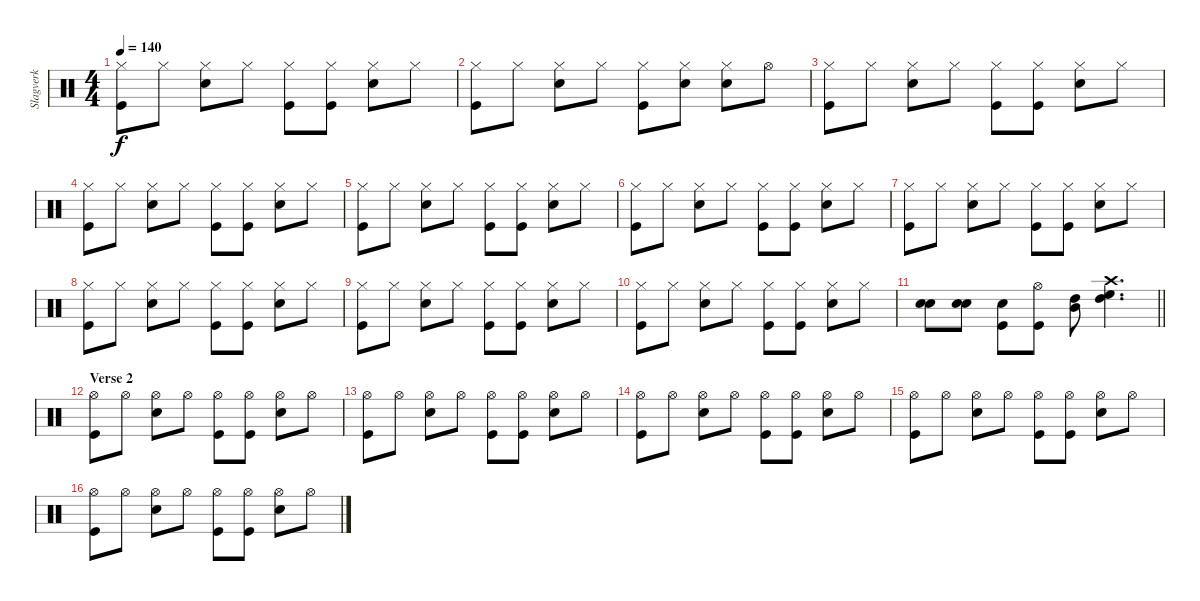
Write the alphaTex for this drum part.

\track ("Slagverk" "Slagverk") {instrument percussion}
\staff {score}
\articulation defaults
\ts (4 4)
\tempo 140
\clef neutral
\ks c
("Hi-Hat (closed)" "Kick (hit)").8{dy f} "Hi-Hat (closed)".8 ("Hi-Hat (closed)" "Snare (hit) 2").8 "Hi-Hat (closed)".8 ("Hi-Hat (closed)" "Kick (hit)").8 ("Hi-Hat (closed)" "Kick (hit)").8 ("Hi-Hat (closed)" "Snare (hit) 2").8 "Hi-Hat (closed)".8 |
("Hi-Hat (closed)" "Kick (hit)").8 "Hi-Hat (closed)".8 ("Hi-Hat (closed)" "Snare (hit) 2").8 "Hi-Hat (closed)".8 ("Hi-Hat (closed)" "Kick (hit)").8 ("Snare (hit) 2" "Hi-Hat (closed)").8 ("Hi-Hat (closed)" "Snare (hit) 2").8 "Hi-Hat (open)".8 |
("Hi-Hat (closed)" "Kick (hit)").8 "Hi-Hat (closed)".8 ("Hi-Hat (closed)" "Snare (hit) 2").8 "Hi-Hat (closed)".8 ("Hi-Hat (closed)" "Kick (hit)").8 ("Hi-Hat (closed)" "Kick (hit)").8 ("Hi-Hat (closed)" "Snare (hit) 2").8 "Hi-Hat (closed)".8 |
("Hi-Hat (closed)" "Kick (hit)").8 "Hi-Hat (closed)".8 ("Hi-Hat (closed)" "Snare (hit) 2").8 "Hi-Hat (closed)".8 ("Hi-Hat (closed)" "Kick (hit)").8 ("Hi-Hat (closed)" "Kick (hit)").8 ("Hi-Hat (closed)" "Snare (hit) 2").8 "Hi-Hat (closed)".8 |
("Hi-Hat (closed)" "Kick (hit)").8 "Hi-Hat (closed)".8 ("Hi-Hat (closed)" "Snare (hit) 2").8 "Hi-Hat (closed)".8 ("Hi-Hat (closed)" "Kick (hit)").8 ("Hi-Hat (closed)" "Kick (hit)").8 ("Hi-Hat (closed)" "Snare (hit) 2").8 "Hi-Hat (closed)".8 |
("Hi-Hat (closed)" "Kick (hit)").8 "Hi-Hat (closed)".8 ("Hi-Hat (closed)" "Snare (hit) 2").8 "Hi-Hat (closed)".8 ("Hi-Hat (closed)" "Kick (hit)").8 ("Hi-Hat (closed)" "Kick (hit)").8 ("Hi-Hat (closed)" "Snare (hit) 2").8 "Hi-Hat (closed)".8 |
("Hi-Hat (closed)" "Kick (hit)").8 "Hi-Hat (closed)".8 ("Hi-Hat (closed)" "Snare (hit) 2").8 "Hi-Hat (closed)".8 ("Hi-Hat (closed)" "Kick (hit)").8 ("Hi-Hat (closed)" "Kick (hit)").8 ("Hi-Hat (closed)" "Snare (hit) 2").8 "Hi-Hat (closed)".8 |
("Hi-Hat (closed)" "Kick (hit)").8 "Hi-Hat (closed)".8 ("Hi-Hat (closed)" "Snare (hit) 2").8 "Hi-Hat (closed)".8 ("Hi-Hat (closed)" "Kick (hit)").8 ("Hi-Hat (closed)" "Kick (hit)").8 ("Hi-Hat (closed)" "Snare (hit) 2").8 "Hi-Hat (closed)".8 |
("Hi-Hat (closed)" "Kick (hit)").8 "Hi-Hat (closed)".8 ("Hi-Hat (closed)" "Snare (hit) 2").8 "Hi-Hat (closed)".8 ("Hi-Hat (closed)" "Kick (hit)").8 ("Hi-Hat (closed)" "Kick (hit)").8 ("Hi-Hat (closed)" "Snare (hit) 2").8 "Hi-Hat (closed)".8 |
("Hi-Hat (closed)" "Kick (hit)").8 "Hi-Hat (closed)".8 ("Hi-Hat (closed)" "Snare (hit) 2").8 "Hi-Hat (closed)".8 ("Hi-Hat (closed)" "Kick (hit)").8 ("Hi-Hat (closed)" "Kick (hit)").8 ("Hi-Hat (closed)" "Snare (hit) 2").8 "Hi-Hat (closed)".8 |
\barLineRight lightlight
("Snare (hit) 2" "Snare (hit) 2").8 ("Snare (hit) 2" "Snare (hit) 2").8 ("Kick (hit)" "Snare (hit) 2").8 ("Hi-Hat (open)" "Kick (hit)").8 ("High Tom (hit)" "Mid Tom (hit)").8 ("High Floor Tom (hit)" "High Tom (hit)" "Crash high (hit)").4{d} |
\section ("" "Verse 2")
("Hi-Hat (open)" "Kick (hit)").8 "Hi-Hat (open)".8 ("Hi-Hat (open)" "Snare (hit) 2").8 "Hi-Hat (open)".8 ("Hi-Hat (open)" "Kick (hit)").8 ("Hi-Hat (open)" "Kick (hit)").8 ("Hi-Hat (open)" "Snare (hit) 2").8 "Hi-Hat (open)".8 |
("Hi-Hat (open)" "Kick (hit)").8 "Hi-Hat (open)".8 ("Hi-Hat (open)" "Snare (hit) 2").8 "Hi-Hat (open)".8 ("Hi-Hat (open)" "Kick (hit)").8 ("Hi-Hat (open)" "Kick (hit)").8 ("Hi-Hat (open)" "Snare (hit) 2").8 "Hi-Hat (open)".8 |
("Hi-Hat (open)" "Kick (hit)").8 "Hi-Hat (open)".8 ("Hi-Hat (open)" "Snare (hit) 2").8 "Hi-Hat (open)".8 ("Hi-Hat (open)" "Kick (hit)").8 ("Hi-Hat (open)" "Kick (hit)").8 ("Hi-Hat (open)" "Snare (hit) 2").8 "Hi-Hat (open)".8 |
("Hi-Hat (open)" "Kick (hit)").8 "Hi-Hat (open)".8 ("Hi-Hat (open)" "Snare (hit) 2").8 "Hi-Hat (open)".8 ("Hi-Hat (open)" "Kick (hit)").8 ("Hi-Hat (open)" "Kick (hit)").8 ("Hi-Hat (open)" "Snare (hit) 2").8 "Hi-Hat (open)".8 |
("Hi-Hat (open)" "Kick (hit)").8 "Hi-Hat (open)".8 ("Hi-Hat (open)" "Snare (hit) 2").8 "Hi-Hat (open)".8 ("Hi-Hat (open)" "Kick (hit)").8 ("Hi-Hat (open)" "Kick (hit)").8 ("Hi-Hat (open)" "Snare (hit) 2").8 "Hi-Hat (open)".8
